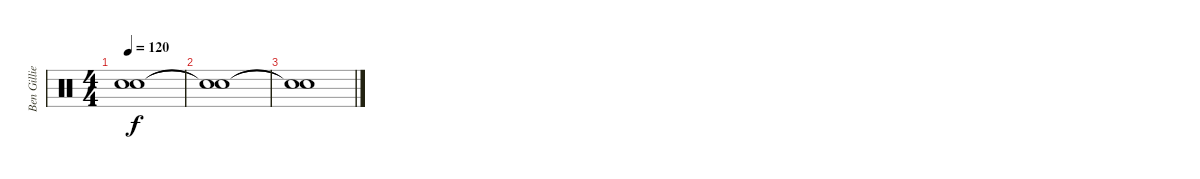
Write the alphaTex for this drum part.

\track ("Ben Gillies" "Ben Gillie") {instrument percussion}
\staff {score}
\articulation defaults
\ts (4 4)
\tempo 120
\clef neutral
\ks c
("Snare (hit)"{t} "Snare (hit)"{t}).1{dy f} |
("Snare (hit)"{t} "Snare (hit)"{t}).1 |
("Snare (hit)"{t} "Snare (hit)"{t}).1
